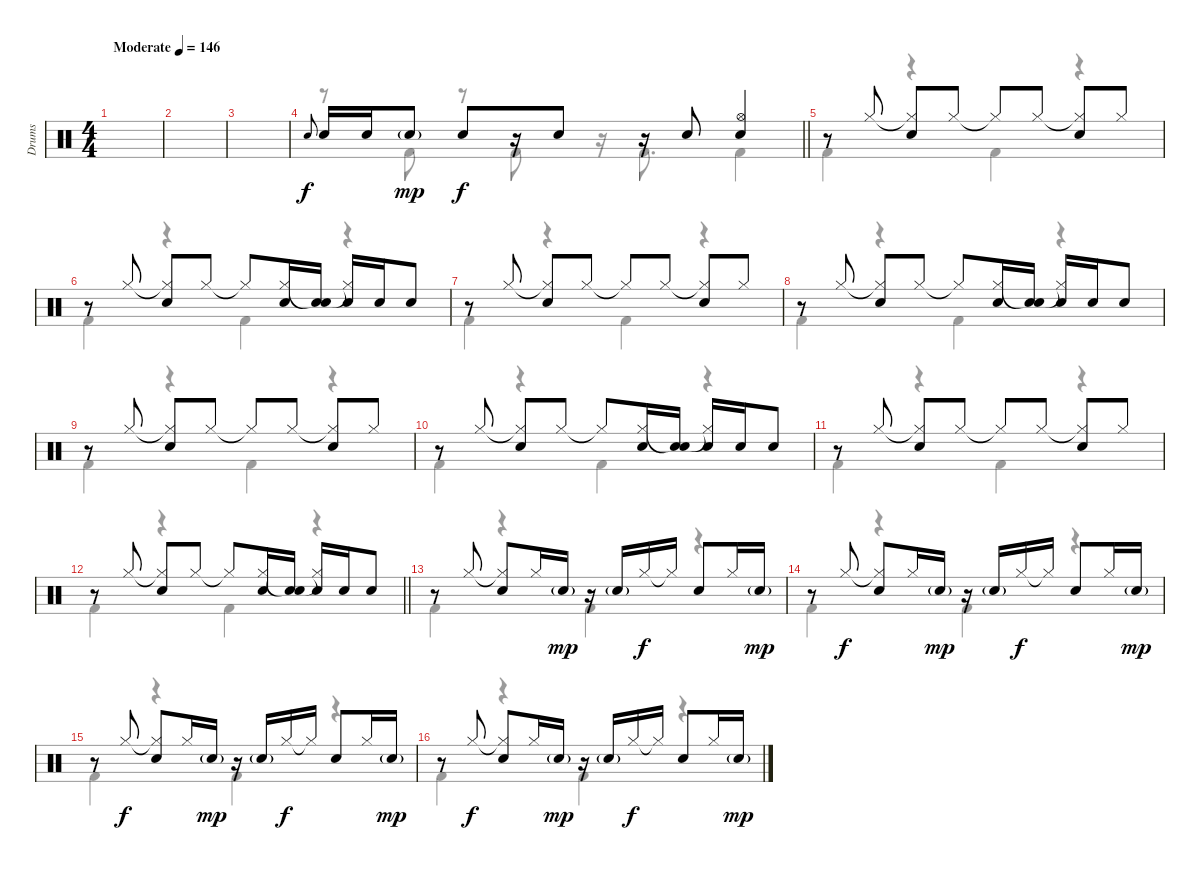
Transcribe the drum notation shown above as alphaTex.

\track ("Drums" "Drums") {instrument percussion}
\staff {score}
\articulation defaults
\voice
\ts (4 4)
\tempo (146 "Moderate")
\clef neutral
\ks c
|
|
|
\barLineRight lightlight "Snare (hit) 2".8{gr onbeat} "Snare (hit) 2".16 "Snare (hit) 2".16 "Snare (hit) 2"{g}.8{dy mp} "Snare (hit) 2".8{dy f}
r.16 "Snare (hit) 2".8 r.16 "Snare (hit) 2".8 ("Hi-Hat (open)" "Electric Snare (hit)").4 |
r.8 "Hi-Hat (closed)".8 ("Hi-Hat (closed)"{t} "Snare (hit) 2").8 "Hi-Hat (closed)".8 "Hi-Hat (closed)"{t}.8 "Hi-Hat (closed)".8 ("Hi-Hat (closed)"{t} "Snare (hit) 2").8 "Hi-Hat (closed)".8 |
r.8 "Hi-Hat (closed)".8 ("Hi-Hat (closed)"{t} "Snare (hit) 2").8 "Hi-Hat (closed)".8 "Hi-Hat (closed)"{t}.8 ("Hi-Hat (closed)" "Snare (hit) 2").16 ("Snare (hit)"{t} "Snare (hit) 2").16 ("Hi-Hat (closed)"{t} "Snare (hit) 2").16 "Snare (hit) 2".16 "Snare (hit) 2".8 |
r.8 "Hi-Hat (closed)".8 ("Hi-Hat (closed)"{t} "Snare (hit) 2").8 "Hi-Hat (closed)".8 "Hi-Hat (closed)"{t}.8 "Hi-Hat (closed)".8 ("Hi-Hat (closed)"{t} "Snare (hit) 2").8 "Hi-Hat (closed)".8 |
r.8 "Hi-Hat (closed)".8 ("Hi-Hat (closed)"{t} "Snare (hit) 2").8 "Hi-Hat (closed)".8 "Hi-Hat (closed)"{t}.8 ("Hi-Hat (closed)" "Snare (hit) 2").16 ("Snare (hit)"{t} "Snare (hit) 2").16 ("Hi-Hat (closed)"{t} "Snare (hit) 2").16 "Snare (hit) 2".16 "Snare (hit) 2".8 |
r.8 "Hi-Hat (closed)".8 ("Hi-Hat (closed)"{t} "Snare (hit) 2").8 "Hi-Hat (closed)".8 "Hi-Hat (closed)"{t}.8 "Hi-Hat (closed)".8 ("Hi-Hat (closed)"{t} "Snare (hit) 2").8 "Hi-Hat (closed)".8 |
r.8 "Hi-Hat (closed)".8 ("Hi-Hat (closed)"{t} "Snare (hit) 2").8 "Hi-Hat (closed)".8 "Hi-Hat (closed)"{t}.8 ("Hi-Hat (closed)" "Snare (hit) 2").16 ("Snare (hit)"{t} "Snare (hit) 2").16 ("Hi-Hat (closed)"{t} "Snare (hit) 2").16 "Snare (hit) 2".16 "Snare (hit) 2".8 |
r.8 "Hi-Hat (closed)".8 ("Hi-Hat (closed)"{t} "Snare (hit) 2").8 "Hi-Hat (closed)".8 "Hi-Hat (closed)"{t}.8 "Hi-Hat (closed)".8 ("Hi-Hat (closed)"{t} "Snare (hit) 2").8 "Hi-Hat (closed)".8 |
\barLineRight lightlight
r.8 "Hi-Hat (closed)".8 ("Hi-Hat (closed)"{t} "Snare (hit) 2").8 "Hi-Hat (closed)".8 "Hi-Hat (closed)"{t}.8 ("Hi-Hat (closed)" "Snare (hit) 2").16 ("Snare (hit)"{t} "Snare (hit) 2").16 ("Hi-Hat (closed)"{t} "Snare (hit) 2").16 "Snare (hit) 2".16 "Snare (hit) 2".8 |
r.8 "Hi-Hat (closed)".8 ("Hi-Hat (closed)"{t} "Snare (hit) 2").8 "Hi-Hat (closed)".16 "Snare (hit) 2"{g}.16{dy mp} r.16 "Snare (hit) 2"{g}.16 "Hi-Hat (closed)".16{dy f} "Hi-Hat (closed)"{t}.16 "Snare (hit) 2".8 "Hi-Hat (closed)".16 "Snare (hit) 2"{g}.16{dy mp} |
r.8 "Hi-Hat (closed)".8{dy f} ("Hi-Hat (closed)"{t} "Snare (hit) 2").8 "Hi-Hat (closed)".16 "Snare (hit) 2"{g}.16{dy mp} r.16 "Snare (hit) 2"{g}.16 "Hi-Hat (closed)".16{dy f} "Hi-Hat (closed)"{t}.16 "Snare (hit) 2".8 "Hi-Hat (closed)".16 "Snare (hit) 2"{g}.16{dy mp} |
r.8 "Hi-Hat (closed)".8{dy f} ("Hi-Hat (closed)"{t} "Snare (hit) 2").8 "Hi-Hat (closed)".16 "Snare (hit) 2"{g}.16{dy mp} r.16 "Snare (hit) 2"{g}.16 "Hi-Hat (closed)".16{dy f} "Hi-Hat (closed)"{t}.16 "Snare (hit) 2".8 "Hi-Hat (closed)".16 "Snare (hit) 2"{g}.16{dy mp} |
r.8 "Hi-Hat (closed)".8{dy f} ("Hi-Hat (closed)"{t} "Snare (hit) 2").8 "Hi-Hat (closed)".16 "Snare (hit) 2"{g}.16{dy mp} r.16 "Snare (hit) 2"{g}.16 "Hi-Hat (closed)".16{dy f} "Hi-Hat (closed)"{t}.16 "Snare (hit) 2".8 "Hi-Hat (closed)".16 "Snare (hit) 2"{g}.16{dy mp}
\voice
\clef neutral
\ottava regular
\simile none
\ks c
|
|
|
\barLineRight lightlight
r.8 "Kick (hit) 2".8 r.8 "Kick (hit) 2".8 r.16 "Kick (hit) 2".8{d} "Kick (hit) 2".4 |
"Kick (hit) 2".4 r.4 "Kick (hit) 2".4 r.4 |
"Kick (hit) 2".4 r.4 "Kick (hit) 2".4 r.4 |
"Kick (hit) 2".4 r.4 "Kick (hit) 2".4 r.4 |
"Kick (hit) 2".4 r.4 "Kick (hit) 2".4 r.4 |
"Kick (hit) 2".4 r.4 "Kick (hit) 2".4 r.4 |
"Kick (hit) 2".4 r.4 "Kick (hit) 2".4 r.4 |
"Kick (hit) 2".4 r.4 "Kick (hit) 2".4 r.4 |
\barLineRight lightlight "Kick (hit) 2".4
r.4 "Kick (hit) 2".4 r.4 |
"Kick (hit) 2".4 r.4 "Kick (hit) 2".4 r.4 |
"Kick (hit) 2".4 r.4 "Kick (hit) 2".4 r.4 |
"Kick (hit) 2".4 r.4 "Kick (hit) 2".4 r.4 |
"Kick (hit) 2".4 r.4 "Kick (hit) 2".4 r.4
